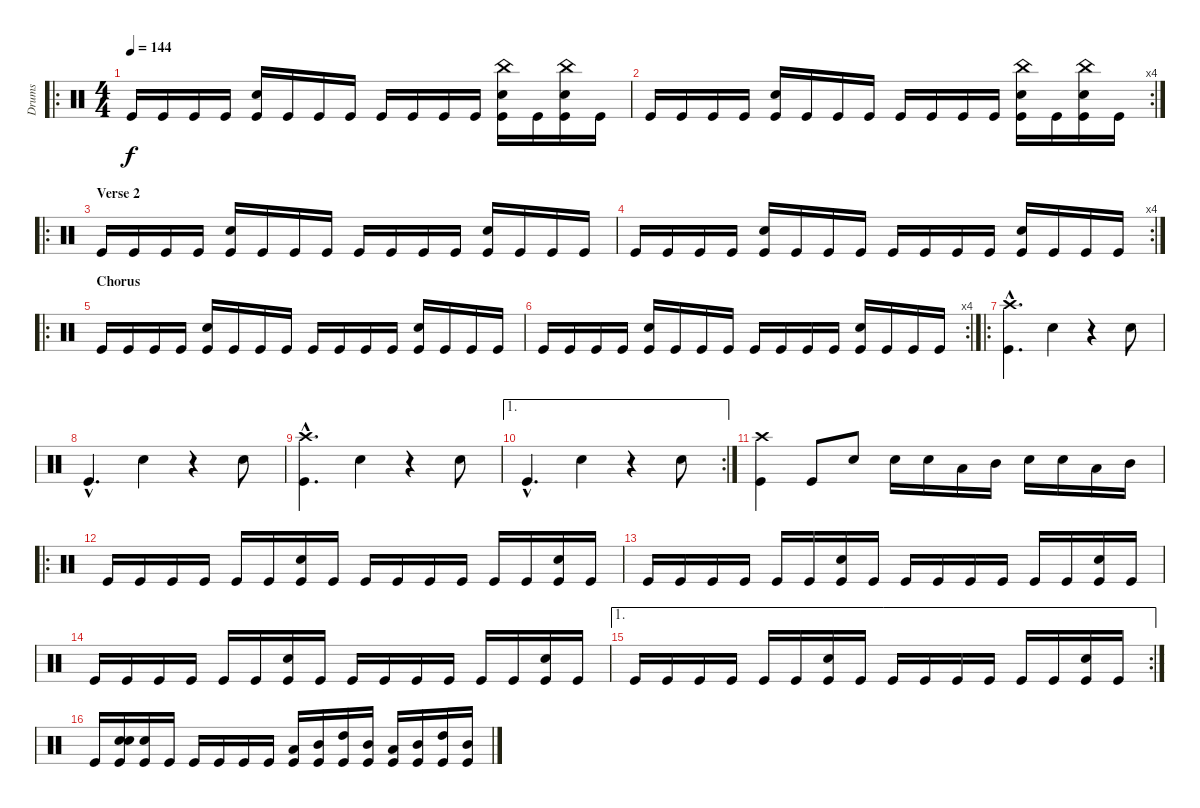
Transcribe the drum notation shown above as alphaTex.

\track ("Drums" "Drums") {instrument percussion}
\staff {score}
\articulation defaults
\ro
\ts (4 4)
\tempo 144
\clef neutral
\ks c "Kick (hit)".16{dy f} "Kick (hit)".16 "Kick (hit)".16 "Kick (hit)".16
("Snare (hit) 2" "Kick (hit)").16 "Kick (hit)".16 "Kick (hit)".16 "Kick (hit)".16 "Kick (hit)".16 "Kick (hit)".16 "Kick (hit)".16 "Kick (hit)".16 ("China (hit)" "Snare (hit) 2" "Kick (hit)").16 "Kick (hit)".16 ("China (hit)" "Snare (hit) 2" "Kick (hit)").16 "Kick (hit)".16 |
\rc 4 "Kick (hit)".16 "Kick (hit)".16 "Kick (hit)".16 "Kick (hit)".16
("Snare (hit) 2" "Kick (hit)").16 "Kick (hit)".16 "Kick (hit)".16 "Kick (hit)".16 "Kick (hit)".16 "Kick (hit)".16 "Kick (hit)".16 "Kick (hit)".16 ("China (hit)" "Snare (hit) 2" "Kick (hit)").16 "Kick (hit)".16 ("China (hit)" "Snare (hit) 2" "Kick (hit)").16 "Kick (hit)".16 |
\ro
\section ("" "Verse 2")
"Kick (hit)".16 "Kick (hit)".16 "Kick (hit)".16 "Kick (hit)".16 ("Snare (hit) 2" "Kick (hit)").16 "Kick (hit)".16 "Kick (hit)".16 "Kick (hit)".16 "Kick (hit)".16 "Kick (hit)".16 "Kick (hit)".16 "Kick (hit)".16 ("Snare (hit) 2" "Kick (hit)").16 "Kick (hit)".16 "Kick (hit)".16 "Kick (hit)".16 |
\rc 4 "Kick (hit)".16 "Kick (hit)".16 "Kick (hit)".16 "Kick (hit)".16
("Snare (hit) 2" "Kick (hit)").16 "Kick (hit)".16 "Kick (hit)".16 "Kick (hit)".16 "Kick (hit)".16 "Kick (hit)".16 "Kick (hit)".16 "Kick (hit)".16 ("Snare (hit) 2" "Kick (hit)").16 "Kick (hit)".16 "Kick (hit)".16 "Kick (hit)".16 |
\ro
\section ("" "Chorus")
"Kick (hit)".16 "Kick (hit)".16 "Kick (hit)".16 "Kick (hit)".16 ("Snare (hit) 2" "Kick (hit)").16 "Kick (hit)".16 "Kick (hit)".16 "Kick (hit)".16 "Kick (hit)".16 "Kick (hit)".16 "Kick (hit)".16 "Kick (hit)".16 ("Snare (hit) 2" "Kick (hit)").16 "Kick (hit)".16 "Kick (hit)".16 "Kick (hit)".16 |
\rc 4 "Kick (hit)".16 "Kick (hit)".16 "Kick (hit)".16 "Kick (hit)".16
("Snare (hit) 2" "Kick (hit)").16 "Kick (hit)".16 "Kick (hit)".16 "Kick (hit)".16 "Kick (hit)".16 "Kick (hit)".16 "Kick (hit)".16 "Kick (hit)".16 ("Snare (hit) 2" "Kick (hit)").16 "Kick (hit)".16 "Kick (hit)".16 "Kick (hit)".16 |
\ro
("Crash high (hit)"{hac} "Kick (hit)"{hac}).4{d} "Snare (hit) 2".4 r.4 "Snare (hit) 2".8 |
"Kick (hit)"{hac}.4{d} "Snare (hit) 2".4 r.4 "Snare (hit) 2".8 |
("Crash high (hit)"{hac} "Kick (hit)"{hac}).4{d} "Snare (hit) 2".4 r.4 "Snare (hit) 2".8 |
\ae 1
\rc 2 "Kick (hit)"{hac}.4{d} "Snare (hit) 2".4
r.4 "Snare (hit) 2".8 |
("Crash high (hit)" "Kick (hit)").4 "Kick (hit)".8 "Snare (hit) 2".8 "Snare (hit) 2".16 "Snare (hit) 2".16 "Low Tom (hit)".16 "Mid Tom (hit)".16 "Snare (hit) 2".16 "Snare (hit) 2".16 "Low Tom (hit)".16 "Mid Tom (hit)".16 |
\ro "Kick (hit)".16 "Kick (hit)".16 "Kick (hit)".16 "Kick (hit)".16 "Kick (hit)".16 "Kick (hit)".16
("Snare (hit) 2" "Kick (hit)").16 "Kick (hit)".16 "Kick (hit)".16 "Kick (hit)".16 "Kick (hit)".16 "Kick (hit)".16 "Kick (hit)".16 "Kick (hit)".16 ("Snare (hit) 2" "Kick (hit)").16 "Kick (hit)".16 |
"Kick (hit)".16 "Kick (hit)".16 "Kick (hit)".16 "Kick (hit)".16 "Kick (hit)".16 "Kick (hit)".16 ("Snare (hit) 2" "Kick (hit)").16 "Kick (hit)".16 "Kick (hit)".16 "Kick (hit)".16 "Kick (hit)".16 "Kick (hit)".16 "Kick (hit)".16 "Kick (hit)".16 ("Snare (hit) 2" "Kick (hit)").16 "Kick (hit)".16 |
"Kick (hit)".16 "Kick (hit)".16 "Kick (hit)".16 "Kick (hit)".16 "Kick (hit)".16 "Kick (hit)".16 ("Snare (hit) 2" "Kick (hit)").16 "Kick (hit)".16 "Kick (hit)".16 "Kick (hit)".16 "Kick (hit)".16 "Kick (hit)".16 "Kick (hit)".16 "Kick (hit)".16 ("Snare (hit) 2" "Kick (hit)").16 "Kick (hit)".16 |
\ae 1
\rc 2 "Kick (hit)".16 "Kick (hit)".16 "Kick (hit)".16 "Kick (hit)".16 "Kick (hit)".16 "Kick (hit)".16
("Snare (hit) 2" "Kick (hit)").16 "Kick (hit)".16 "Kick (hit)".16 "Kick (hit)".16 "Kick (hit)".16 "Kick (hit)".16 "Kick (hit)".16 "Kick (hit)".16 ("Snare (hit) 2" "Kick (hit)").16 "Kick (hit)".16 |
"Kick (hit)".16 ("Snare (hit) 2" "Snare (hit) 2" "Kick (hit)").16 ("Snare (hit) 2" "Kick (hit)").16 "Kick (hit)".16 "Kick (hit)".16 "Kick (hit)".16 "Kick (hit)".16 "Kick (hit)".16 ("Low Tom (hit)" "Kick (hit)").16 ("Mid Tom (hit)" "Kick (hit)").16 ("High Tom (hit)" "Kick (hit)").16 ("Mid Tom (hit)" "Kick (hit)").16 ("Low Tom (hit)" "Kick (hit)").16 ("Mid Tom (hit)" "Kick (hit)").16 ("High Tom (hit)" "Kick (hit)").16 ("Mid Tom (hit)" "Kick (hit)").16
